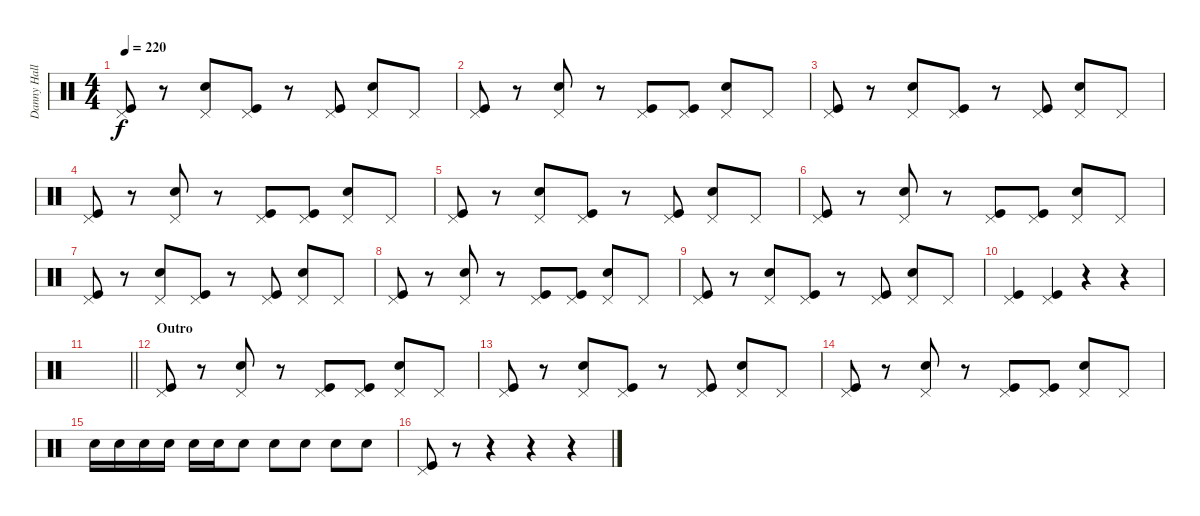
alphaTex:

\track ("Danny Hall" "Danny Hall") {instrument percussion}
\staff {score}
\articulation defaults
\ts (4 4)
\tempo 220
\clef neutral
\ks c
("Pedal Hi-Hat (hit)" "Kick (hit)").8{dy f} r.8 ("Pedal Hi-Hat (hit)" "Snare (hit) 2").8 ("Pedal Hi-Hat (hit)" "Kick (hit)").8 r.8 ("Pedal Hi-Hat (hit)" "Kick (hit)").8 ("Pedal Hi-Hat (hit)" "Snare (hit) 2").8 "Pedal Hi-Hat (hit)".8 |
("Pedal Hi-Hat (hit)" "Kick (hit)").8 r.8 ("Pedal Hi-Hat (hit)" "Snare (hit) 2").8 r.8 ("Pedal Hi-Hat (hit)" "Kick (hit)").8 ("Pedal Hi-Hat (hit)" "Kick (hit)").8 ("Pedal Hi-Hat (hit)" "Snare (hit) 2").8 "Pedal Hi-Hat (hit)".8 |
("Pedal Hi-Hat (hit)" "Kick (hit)").8 r.8 ("Pedal Hi-Hat (hit)" "Snare (hit) 2").8 ("Pedal Hi-Hat (hit)" "Kick (hit)").8 r.8 ("Pedal Hi-Hat (hit)" "Kick (hit)").8 ("Pedal Hi-Hat (hit)" "Snare (hit) 2").8 "Pedal Hi-Hat (hit)".8 |
("Pedal Hi-Hat (hit)" "Kick (hit)").8 r.8 ("Pedal Hi-Hat (hit)" "Snare (hit) 2").8 r.8 ("Pedal Hi-Hat (hit)" "Kick (hit)").8 ("Pedal Hi-Hat (hit)" "Kick (hit)").8 ("Pedal Hi-Hat (hit)" "Snare (hit) 2").8 "Pedal Hi-Hat (hit)".8 |
("Pedal Hi-Hat (hit)" "Kick (hit)").8 r.8 ("Pedal Hi-Hat (hit)" "Snare (hit) 2").8 ("Pedal Hi-Hat (hit)" "Kick (hit)").8 r.8 ("Pedal Hi-Hat (hit)" "Kick (hit)").8 ("Pedal Hi-Hat (hit)" "Snare (hit) 2").8 "Pedal Hi-Hat (hit)".8 |
("Pedal Hi-Hat (hit)" "Kick (hit)").8 r.8 ("Pedal Hi-Hat (hit)" "Snare (hit) 2").8 r.8 ("Pedal Hi-Hat (hit)" "Kick (hit)").8 ("Pedal Hi-Hat (hit)" "Kick (hit)").8 ("Pedal Hi-Hat (hit)" "Snare (hit) 2").8 "Pedal Hi-Hat (hit)".8 |
("Pedal Hi-Hat (hit)" "Kick (hit)").8 r.8 ("Pedal Hi-Hat (hit)" "Snare (hit) 2").8 ("Pedal Hi-Hat (hit)" "Kick (hit)").8 r.8 ("Pedal Hi-Hat (hit)" "Kick (hit)").8 ("Pedal Hi-Hat (hit)" "Snare (hit) 2").8 "Pedal Hi-Hat (hit)".8 |
("Pedal Hi-Hat (hit)" "Kick (hit)").8 r.8 ("Pedal Hi-Hat (hit)" "Snare (hit) 2").8 r.8 ("Pedal Hi-Hat (hit)" "Kick (hit)").8 ("Pedal Hi-Hat (hit)" "Kick (hit)").8 ("Pedal Hi-Hat (hit)" "Snare (hit) 2").8 "Pedal Hi-Hat (hit)".8 |
("Pedal Hi-Hat (hit)" "Kick (hit)").8 r.8 ("Pedal Hi-Hat (hit)" "Snare (hit) 2").8 ("Pedal Hi-Hat (hit)" "Kick (hit)").8 r.8 ("Pedal Hi-Hat (hit)" "Kick (hit)").8 ("Pedal Hi-Hat (hit)" "Snare (hit) 2").8 "Pedal Hi-Hat (hit)".8 |
("Pedal Hi-Hat (hit)" "Kick (hit)").4 ("Pedal Hi-Hat (hit)" "Kick (hit)").4 r.4 r.4 |
\barLineRight lightlight
|
\section ("" "Outro")
("Pedal Hi-Hat (hit)" "Kick (hit)").8 r.8 ("Pedal Hi-Hat (hit)" "Snare (hit) 2").8 r.8 ("Pedal Hi-Hat (hit)" "Kick (hit)").8 ("Pedal Hi-Hat (hit)" "Kick (hit)").8 ("Pedal Hi-Hat (hit)" "Snare (hit) 2").8 "Pedal Hi-Hat (hit)".8 |
("Pedal Hi-Hat (hit)" "Kick (hit)").8 r.8 ("Pedal Hi-Hat (hit)" "Snare (hit) 2").8 ("Pedal Hi-Hat (hit)" "Kick (hit)").8 r.8 ("Pedal Hi-Hat (hit)" "Kick (hit)").8 ("Pedal Hi-Hat (hit)" "Snare (hit) 2").8 "Pedal Hi-Hat (hit)".8 |
("Pedal Hi-Hat (hit)" "Kick (hit)").8 r.8 ("Pedal Hi-Hat (hit)" "Snare (hit) 2").8 r.8 ("Pedal Hi-Hat (hit)" "Kick (hit)").8 ("Pedal Hi-Hat (hit)" "Kick (hit)").8 ("Pedal Hi-Hat (hit)" "Snare (hit) 2").8 "Pedal Hi-Hat (hit)".8 |
"Snare (hit) 2".16 "Snare (hit) 2".16 "Snare (hit) 2".16 "Snare (hit) 2".16 "Snare (hit) 2".16 "Snare (hit) 2".16 "Snare (hit) 2".8 "Snare (hit) 2".8 "Snare (hit) 2".8 "Snare (hit) 2".8 "Snare (hit) 2".8 |
("Pedal Hi-Hat (hit)" "Kick (hit)").8 r.8 r.4 r.4 r.4
